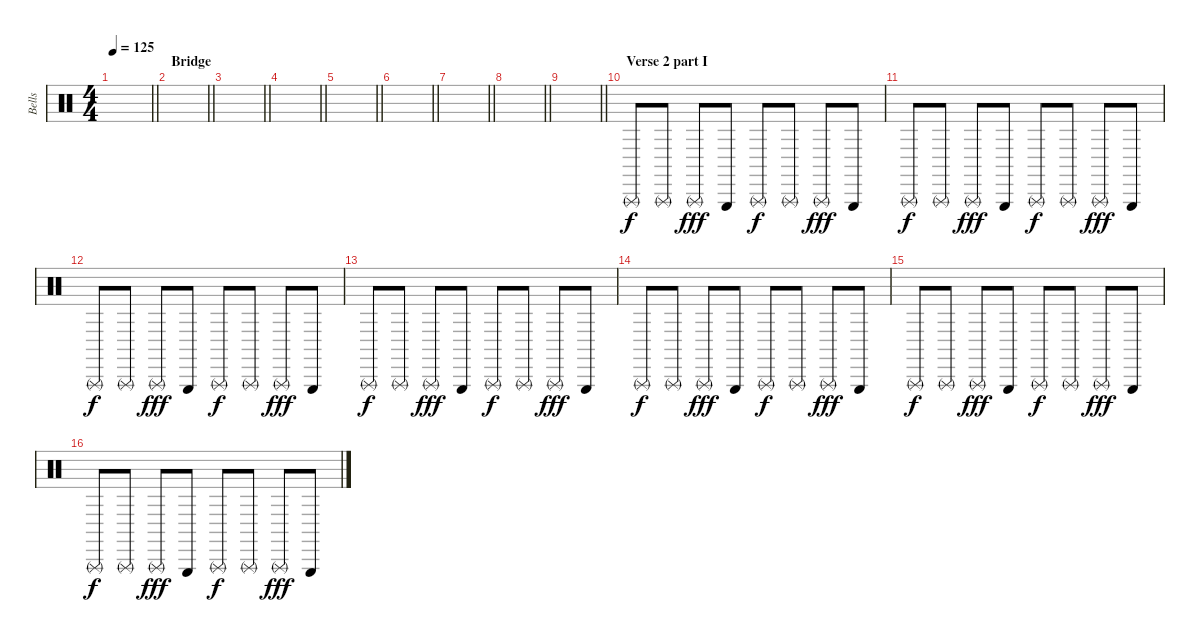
\track ("Bells" "Bells") {instrument percussion}
\staff
\articulation defaults
\ts (4 4)
\tempo 125
\clef neutral
\barLineRight lightlight
\ks c
|
\section ("" "Bridge")
\barLineRight lightlight
|
\barLineRight lightlight
|
\barLineRight lightlight
|
\barLineRight lightlight
|
\barLineRight lightlight
|
\barLineRight lightlight
|
\barLineRight lightlight
|
\barLineRight lightlight
|
\section ("" "Verse 2 part I")
"Triangle (rnute)".8 "Triangle (rnute)".8 "Triangle (rnute)".8{dy fff} "Triangle (hit)".8 "Triangle (rnute)".8{dy f} "Triangle (rnute)".8 "Triangle (rnute)".8{dy fff} "Triangle (hit)".8 |
"Triangle (rnute)".8{dy f} "Triangle (rnute)".8 "Triangle (rnute)".8{dy fff} "Triangle (hit)".8 "Triangle (rnute)".8{dy f} "Triangle (rnute)".8 "Triangle (rnute)".8{dy fff} "Triangle (hit)".8 |
"Triangle (rnute)".8{dy f} "Triangle (rnute)".8 "Triangle (rnute)".8{dy fff} "Triangle (hit)".8 "Triangle (rnute)".8{dy f} "Triangle (rnute)".8 "Triangle (rnute)".8{dy fff} "Triangle (hit)".8 |
"Triangle (rnute)".8{dy f} "Triangle (rnute)".8 "Triangle (rnute)".8{dy fff} "Triangle (hit)".8 "Triangle (rnute)".8{dy f} "Triangle (rnute)".8 "Triangle (rnute)".8{dy fff} "Triangle (hit)".8 |
"Triangle (rnute)".8{dy f} "Triangle (rnute)".8 "Triangle (rnute)".8{dy fff} "Triangle (hit)".8 "Triangle (rnute)".8{dy f} "Triangle (rnute)".8 "Triangle (rnute)".8{dy fff} "Triangle (hit)".8 |
"Triangle (rnute)".8{dy f} "Triangle (rnute)".8 "Triangle (rnute)".8{dy fff} "Triangle (hit)".8 "Triangle (rnute)".8{dy f} "Triangle (rnute)".8 "Triangle (rnute)".8{dy fff} "Triangle (hit)".8 |
"Triangle (rnute)".8{dy f} "Triangle (rnute)".8 "Triangle (rnute)".8{dy fff} "Triangle (hit)".8 "Triangle (rnute)".8{dy f} "Triangle (rnute)".8 "Triangle (rnute)".8{dy fff} "Triangle (hit)".8
